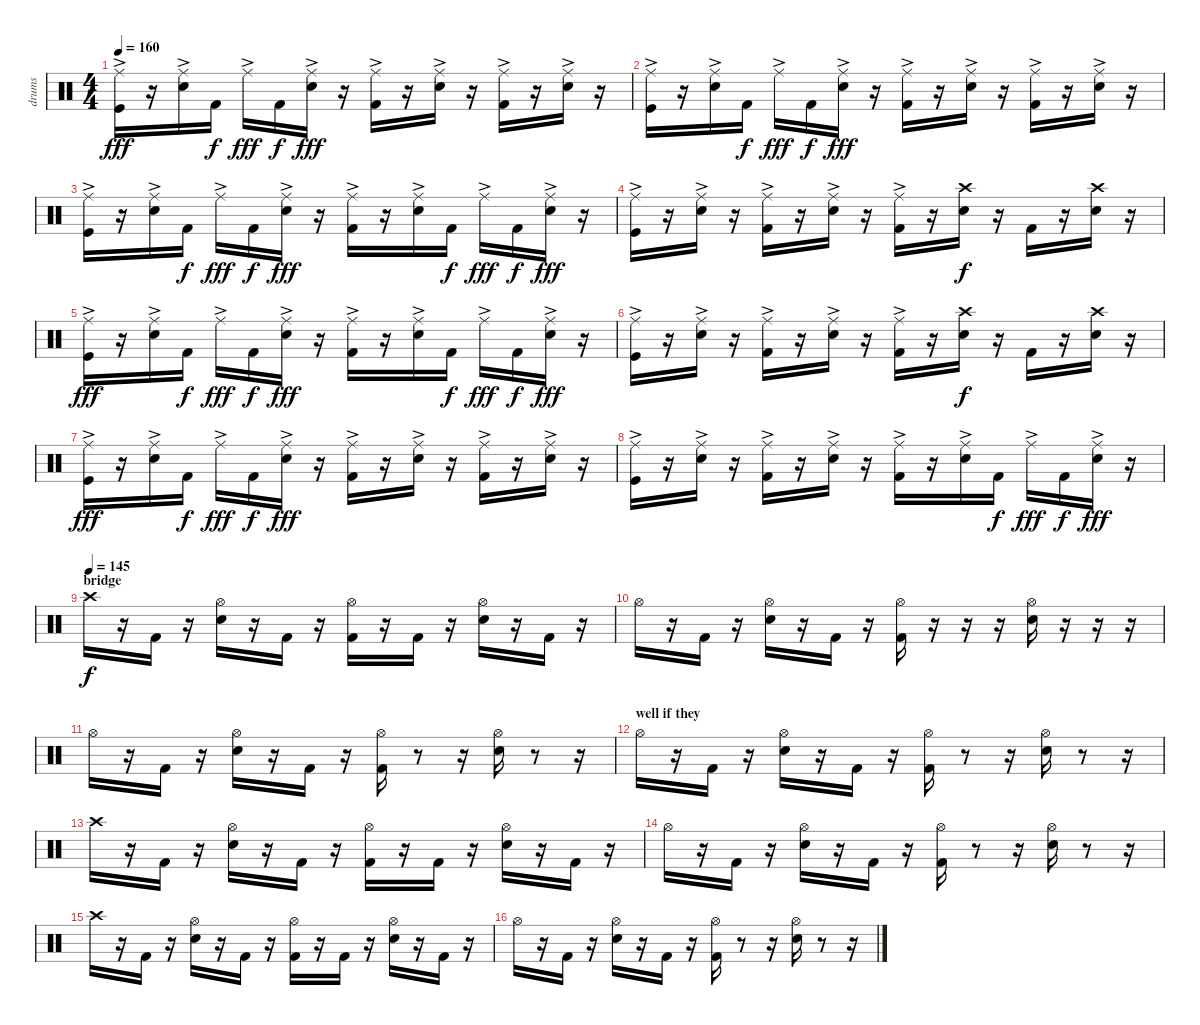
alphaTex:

\track ("drums" "drums") {instrument percussion}
\staff {score}
\articulation defaults
\ts (4 4)
\tempo 160
\clef neutral
\ks c
("Ride (middle)"{ac} "Kick (hit)").16{dy fff} r.16 ("Ride (middle)"{ac} "Snare (hit) 2").16 "Kick (hit) 2".16{dy f} "Ride (middle)"{ac}.16{dy fff} "Kick (hit) 2".16{dy f} ("Ride (middle)"{ac} "Snare (hit) 2").16{dy fff} r.16 ("Ride (middle)"{ac} "Kick (hit) 2").16 r.16 ("Ride (middle)"{ac} "Snare (hit) 2").16 r.16 ("Ride (middle)"{ac} "Kick (hit) 2").16 r.16 ("Ride (middle)"{ac} "Snare (hit) 2").16 r.16 |
("Ride (middle)"{ac} "Kick (hit)").16 r.16 ("Ride (middle)"{ac} "Snare (hit) 2").16 "Kick (hit) 2".16{dy f} "Ride (middle)"{ac}.16{dy fff} "Kick (hit) 2".16{dy f} ("Ride (middle)"{ac} "Snare (hit) 2").16{dy fff} r.16 ("Ride (middle)"{ac} "Kick (hit) 2").16 r.16 ("Ride (middle)"{ac} "Snare (hit) 2").16 r.16 ("Ride (middle)"{ac} "Kick (hit) 2").16 r.16 ("Ride (middle)"{ac} "Snare (hit) 2").16 r.16 |
("Ride (middle)"{ac} "Kick (hit)").16 r.16 ("Ride (middle)"{ac} "Snare (hit) 2").16 "Kick (hit) 2".16{dy f} "Ride (middle)"{ac}.16{dy fff} "Kick (hit) 2".16{dy f} ("Ride (middle)"{ac} "Snare (hit) 2").16{dy fff} r.16 ("Ride (middle)"{ac} "Kick (hit) 2").16 r.16 ("Ride (middle)"{ac} "Snare (hit) 2").16 "Kick (hit) 2".16{dy f} "Ride (middle)"{ac}.16{dy fff} "Kick (hit) 2".16{dy f} ("Ride (middle)"{ac} "Snare (hit) 2").16{dy fff} r.16 |
("Ride (middle)"{ac} "Kick (hit)").16 r.16 ("Ride (middle)"{ac} "Snare (hit) 2").16 r.16 ("Ride (middle)"{ac} "Kick (hit) 2").16 r.16 ("Ride (middle)"{ac} "Snare (hit) 2").16 r.16 ("Ride (middle)"{ac} "Kick (hit) 2").16 r.16 ("Crash high (hit)" "Snare (hit) 2").16{dy f} r.16 "Kick (hit) 2".16 r.16 ("Crash high (hit)" "Snare (hit) 2").16 r.16 |
("Ride (middle)"{ac} "Kick (hit)").16{dy fff} r.16 ("Ride (middle)"{ac} "Snare (hit) 2").16 "Kick (hit) 2".16{dy f} "Ride (middle)"{ac}.16{dy fff} "Kick (hit) 2".16{dy f} ("Ride (middle)"{ac} "Snare (hit) 2").16{dy fff} r.16 ("Ride (middle)"{ac} "Kick (hit) 2").16 r.16 ("Ride (middle)"{ac} "Snare (hit) 2").16 "Kick (hit) 2".16{dy f} "Ride (middle)"{ac}.16{dy fff} "Kick (hit) 2".16{dy f} ("Ride (middle)"{ac} "Snare (hit) 2").16{dy fff} r.16 |
("Ride (middle)"{ac} "Kick (hit)").16 r.16 ("Ride (middle)"{ac} "Snare (hit) 2").16 r.16 ("Ride (middle)"{ac} "Kick (hit) 2").16 r.16 ("Ride (middle)"{ac} "Snare (hit) 2").16 r.16 ("Ride (middle)"{ac} "Kick (hit) 2").16 r.16 ("Crash high (hit)" "Snare (hit) 2").16{dy f} r.16 "Kick (hit) 2".16 r.16 ("Crash high (hit)" "Snare (hit) 2").16 r.16 |
("Ride (middle)"{ac} "Kick (hit)").16{dy fff} r.16 ("Ride (middle)"{ac} "Snare (hit) 2").16 "Kick (hit) 2".16{dy f} "Ride (middle)"{ac}.16{dy fff} "Kick (hit) 2".16{dy f} ("Ride (middle)"{ac} "Snare (hit) 2").16{dy fff} r.16 ("Ride (middle)"{ac} "Kick (hit) 2").16 r.16 ("Ride (middle)"{ac} "Snare (hit) 2").16 r.16 ("Ride (middle)"{ac} "Kick (hit) 2").16 r.16 ("Ride (middle)"{ac} "Snare (hit) 2").16 r.16 |
("Ride (middle)"{ac} "Kick (hit)").16 r.16 ("Ride (middle)"{ac} "Snare (hit) 2").16 r.16 ("Ride (middle)"{ac} "Kick (hit) 2").16 r.16 ("Ride (middle)"{ac} "Snare (hit) 2").16 r.16 ("Ride (middle)"{ac} "Kick (hit) 2").16 r.16 ("Ride (middle)"{ac} "Snare (hit) 2").16 "Kick (hit) 2".16{dy f} "Ride (middle)"{ac}.16{dy fff} "Kick (hit) 2".16{dy f} ("Ride (middle)"{ac} "Snare (hit) 2").16{dy fff} r.16 |
\section ("" "bridge")
\tempo (145)
"Crash high (hit)".16{dy f} r.16 "Kick (hit) 2".16 r.16 ("Hi-Hat (open)" "Snare (hit) 2").16 r.16 "Kick (hit) 2".16 r.16 ("Hi-Hat (open)" "Kick (hit) 2").16 r.16 "Kick (hit) 2".16 r.16 ("Hi-Hat (open)" "Snare (hit) 2").16 r.16 "Kick (hit) 2".16 r.16 |
"Hi-Hat (open)".16 r.16 "Kick (hit) 2".16 r.16 ("Hi-Hat (open)" "Snare (hit) 2").16 r.16 "Kick (hit) 2".16 r.16 ("Hi-Hat (open)" "Kick (hit) 2").16 r.16 r.16 r.16 ("Hi-Hat (open)" "Snare (hit) 2").16 r.16 r.16 r.16 |
"Hi-Hat (open)".16 r.16 "Kick (hit) 2".16 r.16 ("Hi-Hat (open)" "Snare (hit) 2").16 r.16 "Kick (hit) 2".16 r.16 ("Hi-Hat (open)" "Kick (hit) 2").16 r.8 r.16 ("Hi-Hat (open)" "Snare (hit) 2").16 r.8 r.16 |
\section ("" "well if they")
"Hi-Hat (open)".16 r.16 "Kick (hit) 2".16 r.16 ("Hi-Hat (open)" "Snare (hit) 2").16 r.16 "Kick (hit) 2".16 r.16 ("Hi-Hat (open)" "Kick (hit) 2").16 r.8 r.16 ("Hi-Hat (open)" "Snare (hit) 2").16 r.8 r.16 |
"Crash high (hit)".16 r.16 "Kick (hit) 2".16 r.16 ("Hi-Hat (open)" "Snare (hit) 2").16 r.16 "Kick (hit) 2".16 r.16 ("Hi-Hat (open)" "Kick (hit) 2").16 r.16 "Kick (hit) 2".16 r.16 ("Hi-Hat (open)" "Snare (hit) 2").16 r.16 "Kick (hit) 2".16 r.16 |
"Hi-Hat (open)".16 r.16 "Kick (hit) 2".16 r.16 ("Hi-Hat (open)" "Snare (hit) 2").16 r.16 "Kick (hit) 2".16 r.16 ("Hi-Hat (open)" "Kick (hit) 2").16 r.8 r.16 ("Hi-Hat (open)" "Snare (hit) 2").16 r.8 r.16 |
"Crash high (hit)".16 r.16 "Kick (hit) 2".16 r.16 ("Hi-Hat (open)" "Snare (hit) 2").16 r.16 "Kick (hit) 2".16 r.16 ("Hi-Hat (open)" "Kick (hit) 2").16 r.16 "Kick (hit) 2".16 r.16 ("Hi-Hat (open)" "Snare (hit) 2").16 r.16 "Kick (hit) 2".16 r.16 |
"Hi-Hat (open)".16 r.16 "Kick (hit) 2".16 r.16 ("Hi-Hat (open)" "Snare (hit) 2").16 r.16 "Kick (hit) 2".16 r.16 ("Hi-Hat (open)" "Kick (hit) 2").16 r.8 r.16 ("Hi-Hat (open)" "Snare (hit) 2").16 r.8 r.16
